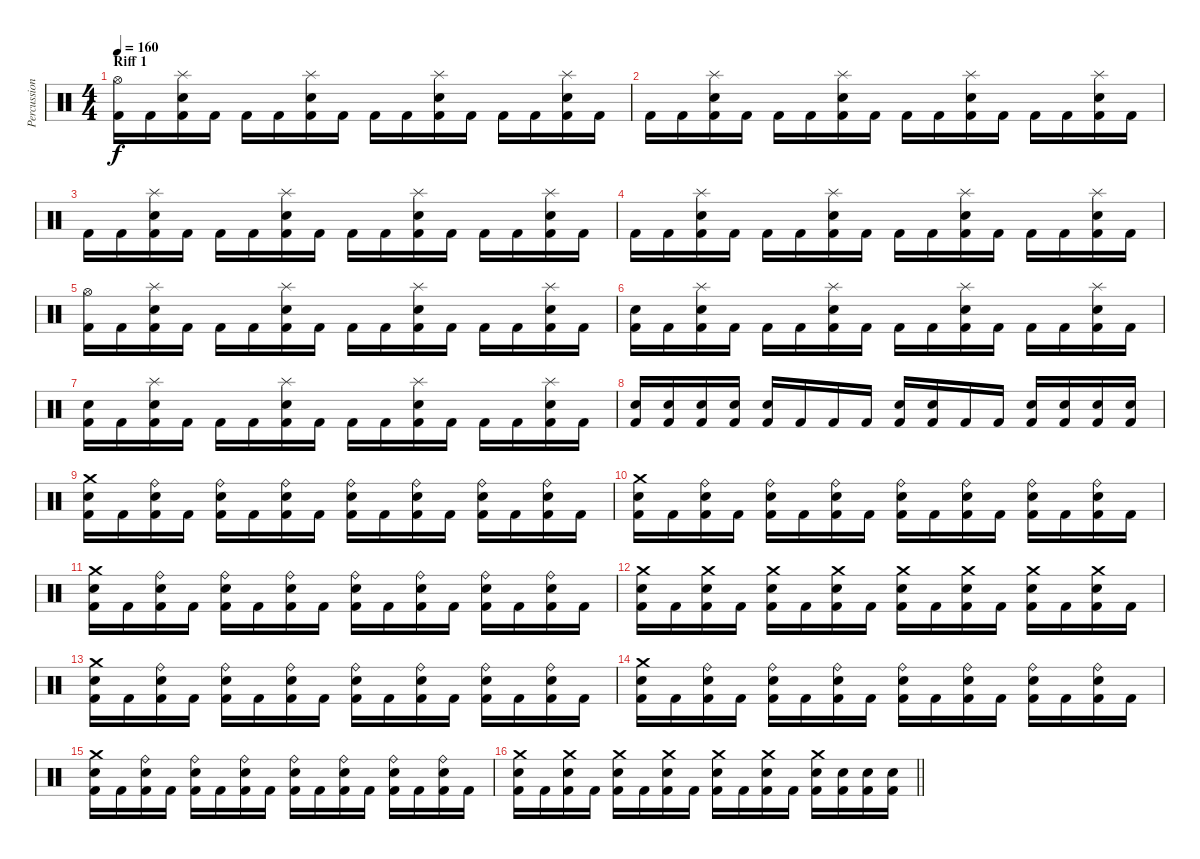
\track ("Percussions" "Percussion") {instrument percussion bank 1}
\staff {score}
\articulation defaults
\ts (4 4)
\section ("" "Riff 1")
\tempo 160
\clef neutral
\ks c
("Kick (hit) 2" "Hi-Hat (open)").16{dy f} "Kick (hit) 2".16 ("Kick (hit) 2" "Electric Snare (hit)" "Splash (hit)").16 "Kick (hit) 2".16 "Kick (hit) 2".16 "Kick (hit) 2".16 ("Kick (hit) 2" "Electric Snare (hit)" "Splash (hit)").16 "Kick (hit) 2".16 "Kick (hit) 2".16 "Kick (hit) 2".16 ("Kick (hit) 2" "Electric Snare (hit)" "Splash (hit)").16 "Kick (hit) 2".16 "Kick (hit) 2".16 "Kick (hit) 2".16 ("Kick (hit) 2" "Electric Snare (hit)" "Splash (hit)").16 "Kick (hit) 2".16 |
"Kick (hit) 2".16 "Kick (hit) 2".16 ("Kick (hit) 2" "Electric Snare (hit)" "Splash (hit)").16 "Kick (hit) 2".16 "Kick (hit) 2".16 "Kick (hit) 2".16 ("Kick (hit) 2" "Electric Snare (hit)" "Splash (hit)").16 "Kick (hit) 2".16 "Kick (hit) 2".16 "Kick (hit) 2".16 ("Kick (hit) 2" "Electric Snare (hit)" "Splash (hit)").16 "Kick (hit) 2".16 "Kick (hit) 2".16 "Kick (hit) 2".16 ("Kick (hit) 2" "Electric Snare (hit)" "Splash (hit)").16 "Kick (hit) 2".16 |
"Kick (hit) 2".16 "Kick (hit) 2".16 ("Kick (hit) 2" "Electric Snare (hit)" "Splash (hit)").16 "Kick (hit) 2".16 "Kick (hit) 2".16 "Kick (hit) 2".16 ("Kick (hit) 2" "Electric Snare (hit)" "Splash (hit)").16 "Kick (hit) 2".16 "Kick (hit) 2".16 "Kick (hit) 2".16 ("Kick (hit) 2" "Electric Snare (hit)" "Splash (hit)").16 "Kick (hit) 2".16 "Kick (hit) 2".16 "Kick (hit) 2".16 ("Kick (hit) 2" "Electric Snare (hit)" "Splash (hit)").16 "Kick (hit) 2".16 |
"Kick (hit) 2".16 "Kick (hit) 2".16 ("Kick (hit) 2" "Electric Snare (hit)" "Splash (hit)").16 "Kick (hit) 2".16 "Kick (hit) 2".16 "Kick (hit) 2".16 ("Kick (hit) 2" "Electric Snare (hit)" "Splash (hit)").16 "Kick (hit) 2".16 "Kick (hit) 2".16 "Kick (hit) 2".16 ("Kick (hit) 2" "Electric Snare (hit)" "Splash (hit)").16 "Kick (hit) 2".16 "Kick (hit) 2".16 "Kick (hit) 2".16 ("Kick (hit) 2" "Electric Snare (hit)" "Splash (hit)").16 "Kick (hit) 2".16 |
("Kick (hit) 2" "Hi-Hat (open)").16 "Kick (hit) 2".16 ("Kick (hit) 2" "Electric Snare (hit)" "Splash (hit)").16 "Kick (hit) 2".16 "Kick (hit) 2".16 "Kick (hit) 2".16 ("Kick (hit) 2" "Electric Snare (hit)" "Splash (hit)").16 "Kick (hit) 2".16 "Kick (hit) 2".16 "Kick (hit) 2".16 ("Kick (hit) 2" "Electric Snare (hit)" "Splash (hit)").16 "Kick (hit) 2".16 "Kick (hit) 2".16 "Kick (hit) 2".16 ("Kick (hit) 2" "Electric Snare (hit)" "Splash (hit)").16 "Kick (hit) 2".16 |
("Kick (hit) 2" "Electric Snare (hit)").16 "Kick (hit) 2".16 ("Kick (hit) 2" "Electric Snare (hit)" "Splash (hit)").16 "Kick (hit) 2".16 "Kick (hit) 2".16 "Kick (hit) 2".16 ("Kick (hit) 2" "Electric Snare (hit)" "Splash (hit)").16 "Kick (hit) 2".16 "Kick (hit) 2".16 "Kick (hit) 2".16 ("Kick (hit) 2" "Electric Snare (hit)" "Splash (hit)").16 "Kick (hit) 2".16 "Kick (hit) 2".16 "Kick (hit) 2".16 ("Kick (hit) 2" "Electric Snare (hit)" "Splash (hit)").16 "Kick (hit) 2".16 |
("Kick (hit) 2" "Electric Snare (hit)").16 "Kick (hit) 2".16 ("Kick (hit) 2" "Electric Snare (hit)" "Splash (hit)").16 "Kick (hit) 2".16 "Kick (hit) 2".16 "Kick (hit) 2".16 ("Kick (hit) 2" "Electric Snare (hit)" "Splash (hit)").16 "Kick (hit) 2".16 "Kick (hit) 2".16 "Kick (hit) 2".16 ("Kick (hit) 2" "Electric Snare (hit)" "Splash (hit)").16 "Kick (hit) 2".16 "Kick (hit) 2".16 "Kick (hit) 2".16 ("Kick (hit) 2" "Electric Snare (hit)" "Splash (hit)").16 "Kick (hit) 2".16 |
("Kick (hit) 2" "Electric Snare (hit)").16 ("Kick (hit) 2" "Electric Snare (hit)").16 ("Kick (hit) 2" "Electric Snare (hit)").16 ("Kick (hit) 2" "Electric Snare (hit)").16 ("Kick (hit) 2" "Electric Snare (hit)").16 "Kick (hit) 2".16 "Kick (hit) 2".16 "Kick (hit) 2".16 ("Kick (hit) 2" "Electric Snare (hit)").16 ("Kick (hit) 2" "Electric Snare (hit)").16 "Kick (hit) 2".16 "Kick (hit) 2".16 ("Kick (hit) 2" "Electric Snare (hit)").16 ("Kick (hit) 2" "Electric Snare (hit)").16 ("Kick (hit) 2" "Electric Snare (hit)").16 ("Kick (hit) 2" "Electric Snare (hit)").16 |
("Kick (hit) 2" "Electric Snare (hit)" "Crash medium (hit)").16 "Kick (hit) 2".16 ("Kick (hit) 2" "Electric Snare (hit)" "Ride (bell)").16 "Kick (hit) 2".16 ("Kick (hit) 2" "Electric Snare (hit)" "Ride (bell)").16 "Kick (hit) 2".16 ("Kick (hit) 2" "Electric Snare (hit)" "Ride (bell)").16 "Kick (hit) 2".16 ("Kick (hit) 2" "Electric Snare (hit)" "Ride (bell)").16 "Kick (hit) 2".16 ("Kick (hit) 2" "Electric Snare (hit)" "Ride (bell)").16 "Kick (hit) 2".16 ("Kick (hit) 2" "Electric Snare (hit)" "Ride (bell)").16 "Kick (hit) 2".16 ("Kick (hit) 2" "Electric Snare (hit)" "Ride (bell)").16 "Kick (hit) 2".16 |
("Kick (hit) 2" "Electric Snare (hit)" "Crash medium (hit)").16 "Kick (hit) 2".16 ("Kick (hit) 2" "Electric Snare (hit)" "Ride (bell)").16 "Kick (hit) 2".16 ("Kick (hit) 2" "Electric Snare (hit)" "Ride (bell)").16 "Kick (hit) 2".16 ("Kick (hit) 2" "Electric Snare (hit)" "Ride (bell)").16 "Kick (hit) 2".16 ("Kick (hit) 2" "Electric Snare (hit)" "Ride (bell)").16 "Kick (hit) 2".16 ("Kick (hit) 2" "Electric Snare (hit)" "Ride (bell)").16 "Kick (hit) 2".16 ("Kick (hit) 2" "Electric Snare (hit)" "Ride (bell)").16 "Kick (hit) 2".16 ("Kick (hit) 2" "Electric Snare (hit)" "Ride (bell)").16 "Kick (hit) 2".16 |
("Kick (hit) 2" "Electric Snare (hit)" "Crash medium (hit)").16 "Kick (hit) 2".16 ("Kick (hit) 2" "Electric Snare (hit)" "Ride (bell)").16 "Kick (hit) 2".16 ("Kick (hit) 2" "Electric Snare (hit)" "Ride (bell)").16 "Kick (hit) 2".16 ("Kick (hit) 2" "Electric Snare (hit)" "Ride (bell)").16 "Kick (hit) 2".16 ("Kick (hit) 2" "Electric Snare (hit)" "Ride (bell)").16 "Kick (hit) 2".16 ("Kick (hit) 2" "Electric Snare (hit)" "Ride (bell)").16 "Kick (hit) 2".16 ("Kick (hit) 2" "Electric Snare (hit)" "Ride (bell)").16 "Kick (hit) 2".16 ("Kick (hit) 2" "Electric Snare (hit)" "Ride (bell)").16 "Kick (hit) 2".16 |
("Kick (hit) 2" "Electric Snare (hit)" "Crash medium (hit)").16 "Kick (hit) 2".16 ("Kick (hit) 2" "Electric Snare (hit)" "Crash medium (hit)").16 "Kick (hit) 2".16 ("Kick (hit) 2" "Electric Snare (hit)" "Crash medium (hit)").16 "Kick (hit) 2".16 ("Kick (hit) 2" "Electric Snare (hit)" "Crash medium (hit)").16 "Kick (hit) 2".16 ("Kick (hit) 2" "Electric Snare (hit)" "Crash medium (hit)").16 "Kick (hit) 2".16 ("Kick (hit) 2" "Electric Snare (hit)" "Crash medium (hit)").16 "Kick (hit) 2".16 ("Kick (hit) 2" "Electric Snare (hit)" "Crash medium (hit)").16 "Kick (hit) 2".16 ("Kick (hit) 2" "Electric Snare (hit)" "Crash medium (hit)").16 "Kick (hit) 2".16 |
("Kick (hit) 2" "Electric Snare (hit)" "Crash medium (hit)").16 "Kick (hit) 2".16 ("Kick (hit) 2" "Electric Snare (hit)" "Ride (bell)").16 "Kick (hit) 2".16 ("Kick (hit) 2" "Electric Snare (hit)" "Ride (bell)").16 "Kick (hit) 2".16 ("Kick (hit) 2" "Electric Snare (hit)" "Ride (bell)").16 "Kick (hit) 2".16 ("Kick (hit) 2" "Electric Snare (hit)" "Ride (bell)").16 "Kick (hit) 2".16 ("Kick (hit) 2" "Electric Snare (hit)" "Ride (bell)").16 "Kick (hit) 2".16 ("Kick (hit) 2" "Electric Snare (hit)" "Ride (bell)").16 "Kick (hit) 2".16 ("Kick (hit) 2" "Electric Snare (hit)" "Ride (bell)").16 "Kick (hit) 2".16 |
("Kick (hit) 2" "Electric Snare (hit)" "Crash medium (hit)").16 "Kick (hit) 2".16 ("Kick (hit) 2" "Electric Snare (hit)" "Ride (bell)").16 "Kick (hit) 2".16 ("Kick (hit) 2" "Electric Snare (hit)" "Ride (bell)").16 "Kick (hit) 2".16 ("Kick (hit) 2" "Electric Snare (hit)" "Ride (bell)").16 "Kick (hit) 2".16 ("Kick (hit) 2" "Electric Snare (hit)" "Ride (bell)").16 "Kick (hit) 2".16 ("Kick (hit) 2" "Electric Snare (hit)" "Ride (bell)").16 "Kick (hit) 2".16 ("Kick (hit) 2" "Electric Snare (hit)" "Ride (bell)").16 "Kick (hit) 2".16 ("Kick (hit) 2" "Electric Snare (hit)" "Ride (bell)").16 "Kick (hit) 2".16 |
("Kick (hit) 2" "Electric Snare (hit)" "Crash medium (hit)").16 "Kick (hit) 2".16 ("Kick (hit) 2" "Electric Snare (hit)" "Ride (bell)").16 "Kick (hit) 2".16 ("Kick (hit) 2" "Electric Snare (hit)" "Ride (bell)").16 "Kick (hit) 2".16 ("Kick (hit) 2" "Electric Snare (hit)" "Ride (bell)").16 "Kick (hit) 2".16 ("Kick (hit) 2" "Electric Snare (hit)" "Ride (bell)").16 "Kick (hit) 2".16 ("Kick (hit) 2" "Electric Snare (hit)" "Ride (bell)").16 "Kick (hit) 2".16 ("Kick (hit) 2" "Electric Snare (hit)" "Ride (bell)").16 "Kick (hit) 2".16 ("Kick (hit) 2" "Electric Snare (hit)" "Ride (bell)").16 "Kick (hit) 2".16 |
\barLineRight lightlight
("Kick (hit) 2" "Electric Snare (hit)" "Crash medium (hit)").16 "Kick (hit) 2".16 ("Kick (hit) 2" "Electric Snare (hit)" "Crash medium (hit)").16 "Kick (hit) 2".16 ("Kick (hit) 2" "Electric Snare (hit)" "Crash medium (hit)").16 "Kick (hit) 2".16 ("Kick (hit) 2" "Electric Snare (hit)" "Crash medium (hit)").16 "Kick (hit) 2".16 ("Kick (hit) 2" "Electric Snare (hit)" "Crash medium (hit)").16 "Kick (hit) 2".16 ("Kick (hit) 2" "Electric Snare (hit)" "Crash medium (hit)").16 "Kick (hit) 2".16 ("Kick (hit) 2" "Electric Snare (hit)" "Crash medium (hit)").16 ("Kick (hit) 2" "Electric Snare (hit)").16 ("Kick (hit) 2" "Electric Snare (hit)").16 ("Kick (hit) 2" "Electric Snare (hit)").16
